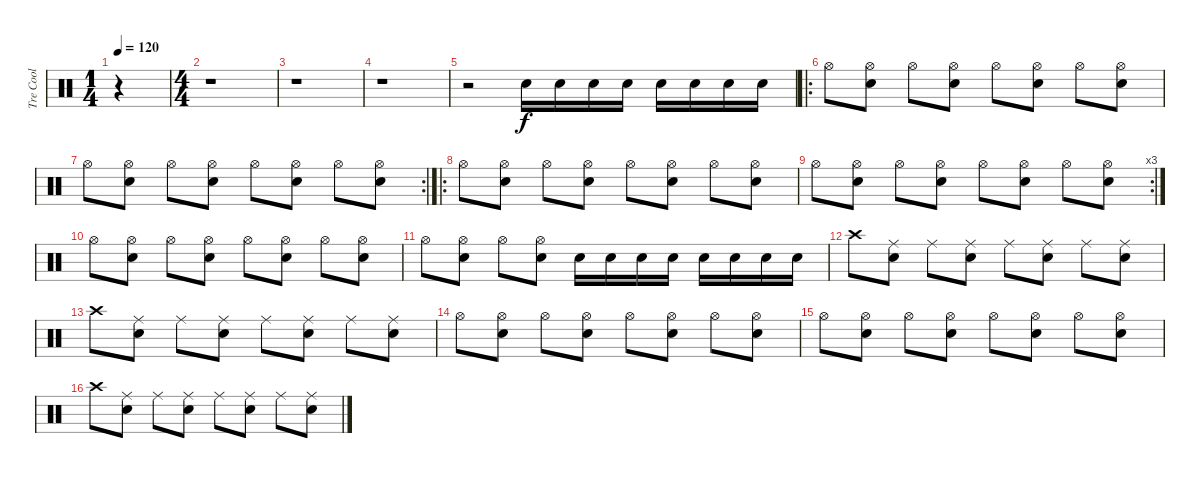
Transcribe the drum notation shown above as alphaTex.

\track ("Tre Cool" "Tre Cool") {instrument percussion}
\staff {score}
\articulation defaults
\ts (1 4)
\tempo 120
\clef neutral
\ks c
r.4{dy f} |
\ts (4 4)
r.1 |
r.1 |
r.1 |
r.2 "Electric Snare (hit)".16 "Electric Snare (hit)".16 "Electric Snare (hit)".16 "Electric Snare (hit)".16 "Electric Snare (hit)".16 "Electric Snare (hit)".16 "Electric Snare (hit)".16 "Electric Snare (hit)".16 |
\ro "Hi-Hat (open)".8
("Electric Snare (hit)" "Hi-Hat (open)").8 "Hi-Hat (open)".8 ("Electric Snare (hit)" "Hi-Hat (open)").8 "Hi-Hat (open)".8 ("Electric Snare (hit)" "Hi-Hat (open)").8 "Hi-Hat (open)".8 ("Electric Snare (hit)" "Hi-Hat (open)").8 |
\rc 2 "Hi-Hat (open)".8
("Electric Snare (hit)" "Hi-Hat (open)").8 "Hi-Hat (open)".8 ("Electric Snare (hit)" "Hi-Hat (open)").8 "Hi-Hat (open)".8 ("Electric Snare (hit)" "Hi-Hat (open)").8 "Hi-Hat (open)".8 ("Electric Snare (hit)" "Hi-Hat (open)").8 |
\ro "Hi-Hat (open)".8
("Electric Snare (hit)" "Hi-Hat (open)").8 "Hi-Hat (open)".8 ("Electric Snare (hit)" "Hi-Hat (open)").8 "Hi-Hat (open)".8 ("Electric Snare (hit)" "Hi-Hat (open)").8 "Hi-Hat (open)".8 ("Electric Snare (hit)" "Hi-Hat (open)").8 |
\rc 3 "Hi-Hat (open)".8
("Electric Snare (hit)" "Hi-Hat (open)").8 "Hi-Hat (open)".8 ("Electric Snare (hit)" "Hi-Hat (open)").8 "Hi-Hat (open)".8 ("Electric Snare (hit)" "Hi-Hat (open)").8 "Hi-Hat (open)".8 ("Electric Snare (hit)" "Hi-Hat (open)").8 |
"Hi-Hat (open)".8 ("Electric Snare (hit)" "Hi-Hat (open)").8 "Hi-Hat (open)".8 ("Electric Snare (hit)" "Hi-Hat (open)").8 "Hi-Hat (open)".8 ("Electric Snare (hit)" "Hi-Hat (open)").8 "Hi-Hat (open)".8 ("Electric Snare (hit)" "Hi-Hat (open)").8 |
"Hi-Hat (open)".8 ("Electric Snare (hit)" "Hi-Hat (open)").8 "Hi-Hat (open)".8 ("Electric Snare (hit)" "Hi-Hat (open)").8 "Electric Snare (hit)".16 "Electric Snare (hit)".16 "Electric Snare (hit)".16 "Electric Snare (hit)".16 "Electric Snare (hit)".16 "Electric Snare (hit)".16 "Electric Snare (hit)".16 "Electric Snare (hit)".16 |
"Crash high (hit)".8 ("Electric Snare (hit)" "Ride (middle)").8 "Ride (middle)".8 ("Electric Snare (hit)" "Ride (middle)").8 "Ride (middle)".8 ("Electric Snare (hit)" "Ride (middle)").8 "Ride (middle)".8 ("Electric Snare (hit)" "Ride (middle)").8 |
"Crash high (hit)".8 ("Electric Snare (hit)" "Ride (middle)").8 "Ride (middle)".8 ("Electric Snare (hit)" "Ride (middle)").8 "Ride (middle)".8 ("Electric Snare (hit)" "Ride (middle)").8 "Ride (middle)".8 ("Electric Snare (hit)" "Ride (middle)").8 |
"Hi-Hat (open)".8 ("Electric Snare (hit)" "Hi-Hat (open)").8 "Hi-Hat (open)".8 ("Electric Snare (hit)" "Hi-Hat (open)").8 "Hi-Hat (open)".8 ("Electric Snare (hit)" "Hi-Hat (open)").8 "Hi-Hat (open)".8 ("Electric Snare (hit)" "Hi-Hat (open)").8 |
"Hi-Hat (open)".8 ("Electric Snare (hit)" "Hi-Hat (open)").8 "Hi-Hat (open)".8 ("Electric Snare (hit)" "Hi-Hat (open)").8 "Hi-Hat (open)".8 ("Electric Snare (hit)" "Hi-Hat (open)").8 "Hi-Hat (open)".8 ("Electric Snare (hit)" "Hi-Hat (open)").8 |
"Crash high (hit)".8 ("Electric Snare (hit)" "Ride (middle)").8 "Ride (middle)".8 ("Electric Snare (hit)" "Ride (middle)").8 "Ride (middle)".8 ("Electric Snare (hit)" "Ride (middle)").8 "Ride (middle)".8 ("Electric Snare (hit)" "Ride (middle)").8
